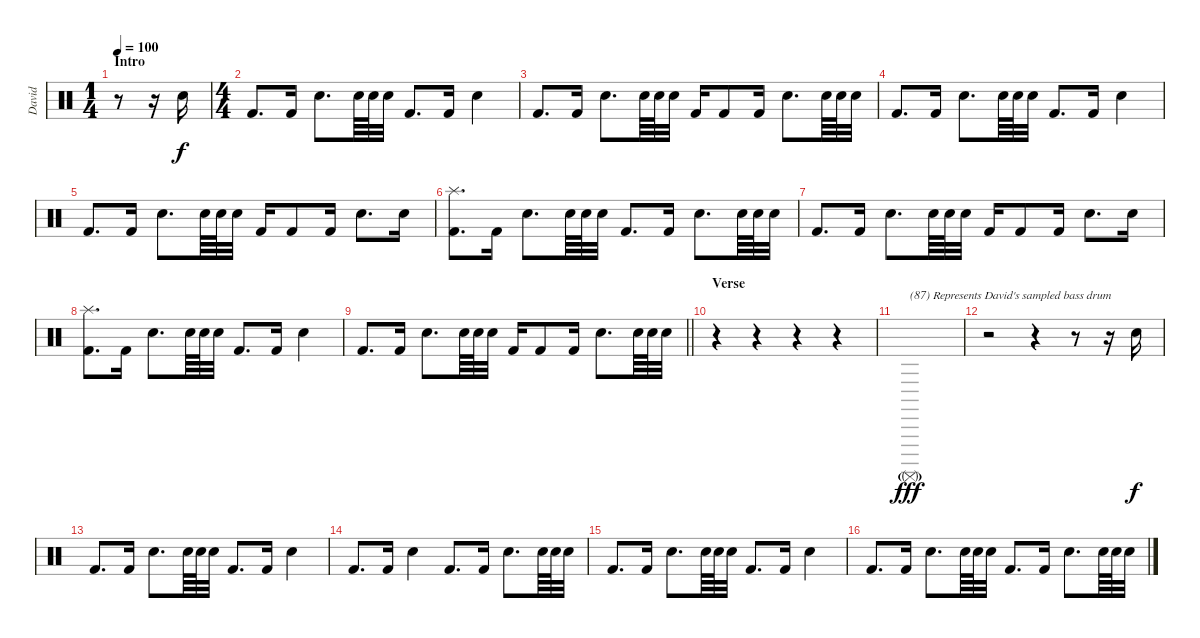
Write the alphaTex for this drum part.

\track ("David" "David") {instrument percussion}
\staff {score}
\articulation defaults
\ts (1 4)
\section ("" "Intro")
\tempo 100
\clef neutral
\ks c
r.8{dy f} r.16 "Snare (hit) 2".16 |
\ts (4 4)
"Kick (hit) 2".8{d} "Kick (hit) 2".16 "Snare (hit) 2".8{d} "Snare (hit) 2".64 "Snare (hit) 2".64 "Snare (hit) 2".32 "Kick (hit) 2".8{d} "Kick (hit) 2".16 "Snare (hit) 2".4 |
"Kick (hit) 2".8{d} "Kick (hit) 2".16 "Snare (hit) 2".8{d} "Snare (hit) 2".64 "Snare (hit) 2".64 "Snare (hit) 2".32 "Kick (hit) 2".16 "Kick (hit) 2".8 "Kick (hit) 2".16 "Snare (hit) 2".8{d} "Snare (hit) 2".64 "Snare (hit) 2".64 "Snare (hit) 2".32 |
"Kick (hit) 2".8{d} "Kick (hit) 2".16 "Snare (hit) 2".8{d} "Snare (hit) 2".64 "Snare (hit) 2".64 "Snare (hit) 2".32 "Kick (hit) 2".8{d} "Kick (hit) 2".16 "Snare (hit) 2".4 |
"Kick (hit) 2".8{d} "Kick (hit) 2".16 "Snare (hit) 2".8{d} "Snare (hit) 2".64 "Snare (hit) 2".64 "Snare (hit) 2".32 "Kick (hit) 2".16 "Kick (hit) 2".8 "Kick (hit) 2".16 "Snare (hit) 2".8{d} "Snare (hit) 2".16 |
("Splash (hit)" "Kick (hit) 2").8{d} "Kick (hit) 2".16 "Snare (hit) 2".8{d} "Snare (hit) 2".64 "Snare (hit) 2".64 "Snare (hit) 2".32 "Kick (hit) 2".8{d} "Kick (hit) 2".16 "Snare (hit) 2".8{d} "Snare (hit) 2".64 "Snare (hit) 2".64 "Snare (hit) 2".32 |
"Kick (hit) 2".8{d} "Kick (hit) 2".16 "Snare (hit) 2".8{d} "Snare (hit) 2".64 "Snare (hit) 2".64 "Snare (hit) 2".32 "Kick (hit) 2".16 "Kick (hit) 2".8 "Kick (hit) 2".16 "Snare (hit) 2".8{d} "Snare (hit) 2".16 |
("Splash (hit)" "Kick (hit) 2").8{d} "Kick (hit) 2".16 "Snare (hit) 2".8{d} "Snare (hit) 2".64 "Snare (hit) 2".64 "Snare (hit) 2".32 "Kick (hit) 2".8{d} "Kick (hit) 2".16 "Snare (hit) 2".4 |
\barLineRight lightlight "Kick (hit) 2".8{d} "Kick (hit) 2".16 "Snare (hit) 2".8{d} "Snare (hit) 2".64 "Snare (hit) 2".64 "Snare (hit) 2".32 "Kick (hit) 2".16 "Kick (hit) 2".8 "Kick (hit) 2".16 "Snare (hit) 2".8{d} "Snare (hit) 2".64 "Snare (hit) 2".64 "Snare (hit) 2".32
|
\section ("" "Verse")
r.4 r.4 r.4 r.4 |
"Surdo (mute)"{g}.1{txt "(87) Represents David's sampled bass drum" dy fff} |
r.2 r.4 r.8 r.16 "Snare (hit) 2".16{dy f} |
"Kick (hit) 2".8{d} "Kick (hit) 2".16 "Snare (hit) 2".8{d} "Snare (hit) 2".64 "Snare (hit) 2".64 "Snare (hit) 2".32 "Kick (hit) 2".8{d} "Kick (hit) 2".16 "Snare (hit) 2".4 |
"Kick (hit) 2".8{d} "Kick (hit) 2".16 "Snare (hit) 2".4 "Kick (hit) 2".8{d} "Kick (hit) 2".16 "Snare (hit) 2".8{d} "Snare (hit) 2".64 "Snare (hit) 2".64 "Snare (hit) 2".32 |
"Kick (hit) 2".8{d} "Kick (hit) 2".16 "Snare (hit) 2".8{d} "Snare (hit) 2".64 "Snare (hit) 2".64 "Snare (hit) 2".32 "Kick (hit) 2".8{d} "Kick (hit) 2".16 "Snare (hit) 2".4 |
"Kick (hit) 2".8{d} "Kick (hit) 2".16 "Snare (hit) 2".8{d} "Snare (hit) 2".64 "Snare (hit) 2".64 "Snare (hit) 2".32 "Kick (hit) 2".8{d} "Kick (hit) 2".16 "Snare (hit) 2".8{d} "Snare (hit) 2".64 "Snare (hit) 2".64 "Snare (hit) 2".32
